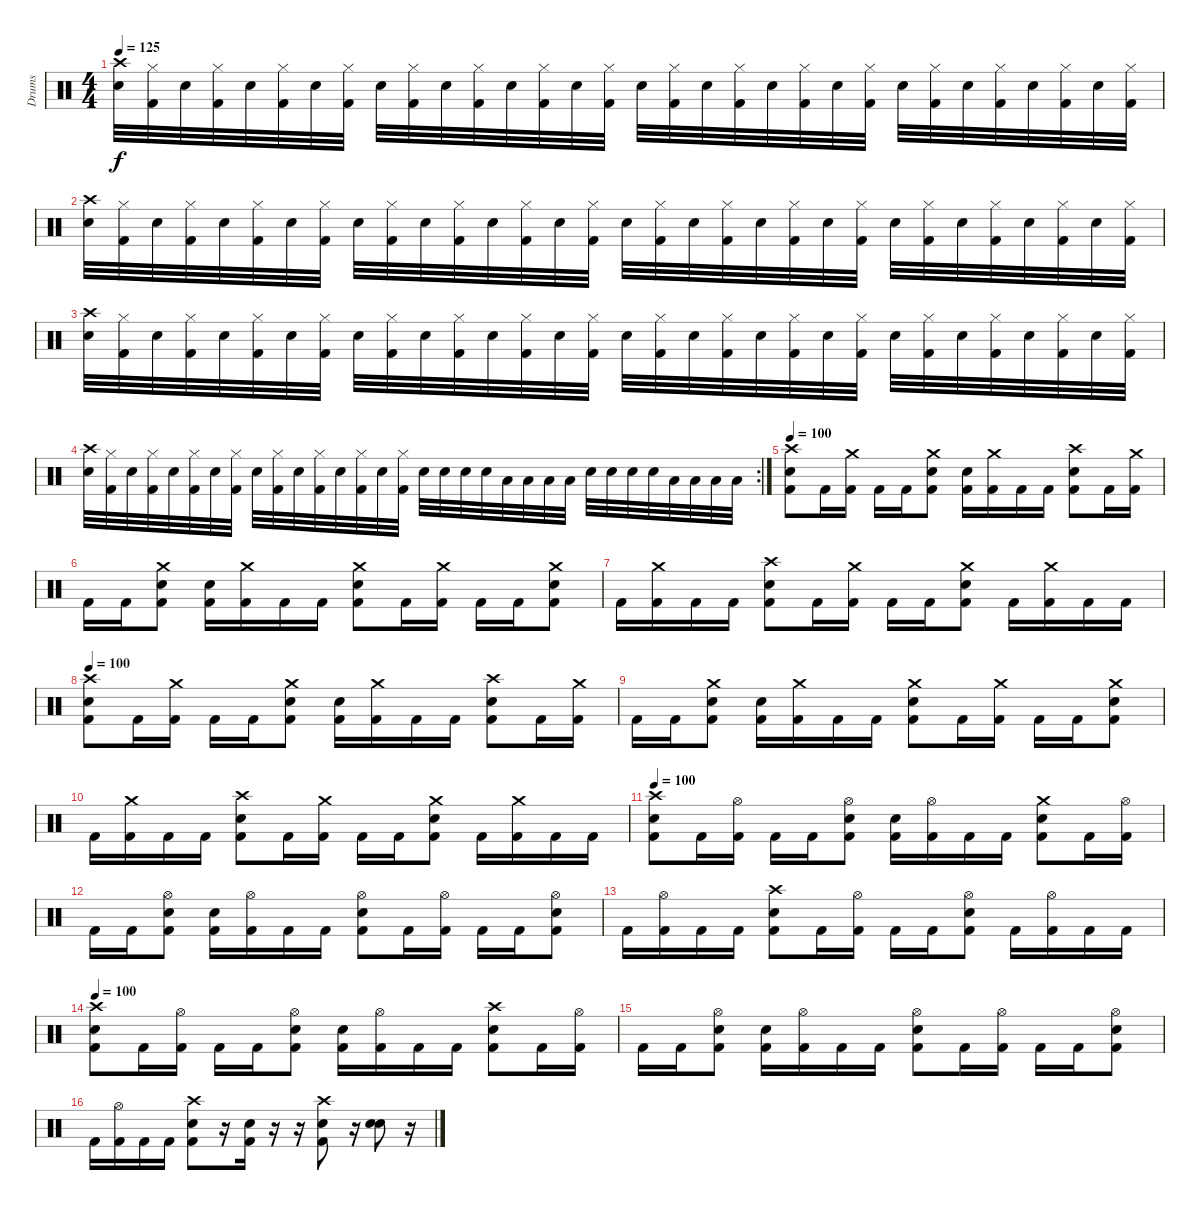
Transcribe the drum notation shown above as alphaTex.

\track ("Drums" "Drums") {instrument percussion}
\staff {score}
\articulation defaults
\ts (4 4)
\tempo 125
\clef neutral
\ks c
("Crash high (hit)" "Snare (hit) 2").32{dy f} ("Hi-Hat (closed)" "Kick (hit) 2").32 "Snare (hit) 2".32 ("Hi-Hat (closed)" "Kick (hit) 2").32 "Snare (hit) 2".32 ("Hi-Hat (closed)" "Kick (hit) 2").32 "Snare (hit) 2".32 ("Hi-Hat (closed)" "Kick (hit) 2").32 "Snare (hit) 2".32 ("Hi-Hat (closed)" "Kick (hit) 2").32 "Snare (hit) 2".32 ("Hi-Hat (closed)" "Kick (hit) 2").32 "Snare (hit) 2".32 ("Hi-Hat (closed)" "Kick (hit) 2").32 "Snare (hit) 2".32 ("Hi-Hat (closed)" "Kick (hit) 2").32 "Snare (hit) 2".32 ("Hi-Hat (closed)" "Kick (hit) 2").32 "Snare (hit) 2".32 ("Hi-Hat (closed)" "Kick (hit) 2").32 "Snare (hit) 2".32 ("Hi-Hat (closed)" "Kick (hit) 2").32 "Snare (hit) 2".32 ("Hi-Hat (closed)" "Kick (hit) 2").32 "Snare (hit) 2".32 ("Hi-Hat (closed)" "Kick (hit) 2").32 "Snare (hit) 2".32 ("Hi-Hat (closed)" "Kick (hit) 2").32 "Snare (hit) 2".32 ("Hi-Hat (closed)" "Kick (hit) 2").32 "Snare (hit) 2".32 ("Hi-Hat (closed)" "Kick (hit) 2").32 |
("Crash high (hit)" "Snare (hit) 2").32 ("Hi-Hat (closed)" "Kick (hit) 2").32 "Snare (hit) 2".32 ("Hi-Hat (closed)" "Kick (hit) 2").32 "Snare (hit) 2".32 ("Hi-Hat (closed)" "Kick (hit) 2").32 "Snare (hit) 2".32 ("Hi-Hat (closed)" "Kick (hit) 2").32 "Snare (hit) 2".32 ("Hi-Hat (closed)" "Kick (hit) 2").32 "Snare (hit) 2".32 ("Hi-Hat (closed)" "Kick (hit) 2").32 "Snare (hit) 2".32 ("Hi-Hat (closed)" "Kick (hit) 2").32 "Snare (hit) 2".32 ("Hi-Hat (closed)" "Kick (hit) 2").32 "Snare (hit) 2".32 ("Hi-Hat (closed)" "Kick (hit) 2").32 "Snare (hit) 2".32 ("Hi-Hat (closed)" "Kick (hit) 2").32 "Snare (hit) 2".32 ("Hi-Hat (closed)" "Kick (hit) 2").32 "Snare (hit) 2".32 ("Hi-Hat (closed)" "Kick (hit) 2").32 "Snare (hit) 2".32 ("Hi-Hat (closed)" "Kick (hit) 2").32 "Snare (hit) 2".32 ("Hi-Hat (closed)" "Kick (hit) 2").32 "Snare (hit) 2".32 ("Hi-Hat (closed)" "Kick (hit) 2").32 "Snare (hit) 2".32 ("Hi-Hat (closed)" "Kick (hit) 2").32 |
("Crash high (hit)" "Snare (hit) 2").32 ("Hi-Hat (closed)" "Kick (hit) 2").32 "Snare (hit) 2".32 ("Hi-Hat (closed)" "Kick (hit) 2").32 "Snare (hit) 2".32 ("Hi-Hat (closed)" "Kick (hit) 2").32 "Snare (hit) 2".32 ("Hi-Hat (closed)" "Kick (hit) 2").32 "Snare (hit) 2".32 ("Hi-Hat (closed)" "Kick (hit) 2").32 "Snare (hit) 2".32 ("Hi-Hat (closed)" "Kick (hit) 2").32 "Snare (hit) 2".32 ("Hi-Hat (closed)" "Kick (hit) 2").32 "Snare (hit) 2".32 ("Hi-Hat (closed)" "Kick (hit) 2").32 "Snare (hit) 2".32 ("Hi-Hat (closed)" "Kick (hit) 2").32 "Snare (hit) 2".32 ("Hi-Hat (closed)" "Kick (hit) 2").32 "Snare (hit) 2".32 ("Hi-Hat (closed)" "Kick (hit) 2").32 "Snare (hit) 2".32 ("Hi-Hat (closed)" "Kick (hit) 2").32 "Snare (hit) 2".32 ("Hi-Hat (closed)" "Kick (hit) 2").32 "Snare (hit) 2".32 ("Hi-Hat (closed)" "Kick (hit) 2").32 "Snare (hit) 2".32 ("Hi-Hat (closed)" "Kick (hit) 2").32 "Snare (hit) 2".32 ("Hi-Hat (closed)" "Kick (hit) 2").32 |
\rc 2
("Crash high (hit)" "Snare (hit) 2").32 ("Hi-Hat (closed)" "Kick (hit) 2").32 "Snare (hit) 2".32 ("Hi-Hat (closed)" "Kick (hit) 2").32 "Snare (hit) 2".32 ("Hi-Hat (closed)" "Kick (hit) 2").32 "Snare (hit) 2".32 ("Hi-Hat (closed)" "Kick (hit) 2").32 "Snare (hit) 2".32 ("Hi-Hat (closed)" "Kick (hit) 2").32 "Snare (hit) 2".32 ("Hi-Hat (closed)" "Kick (hit) 2").32 "Snare (hit) 2".32 ("Hi-Hat (closed)" "Kick (hit) 2").32 "Snare (hit) 2".32 ("Hi-Hat (closed)" "Kick (hit) 2").32 "Snare (hit) 2".32 "Snare (hit) 2".32 "Snare (hit) 2".32 "Snare (hit) 2".32 "Low Tom (hit)".32 "Low Tom (hit)".32 "Low Tom (hit)".32 "Low Tom (hit)".32 "Snare (hit) 2".32 "Snare (hit) 2".32 "Snare (hit) 2".32 "Snare (hit) 2".32 "Low Tom (hit)".32 "Low Tom (hit)".32 "Low Tom (hit)".32 "Low Tom (hit)".32 |
\tempo 100
("Crash high (hit)" "Snare (hit) 2" "Kick (hit) 2").8 "Kick (hit) 2".16 ("Crash medium (hit)" "Kick (hit) 2").16 "Kick (hit) 2".16 "Kick (hit) 2".16 ("Crash medium (hit)" "Snare (hit) 2" "Kick (hit) 2").8 ("Snare (hit) 2" "Kick (hit) 2").16 ("Crash medium (hit)" "Kick (hit) 2").16 "Kick (hit) 2".16 "Kick (hit) 2".16 ("Crash high (hit)" "Snare (hit) 2" "Kick (hit) 2").8 "Kick (hit) 2".16 ("Crash medium (hit)" "Kick (hit) 2").16 |
"Kick (hit) 2".16 "Kick (hit) 2".16 ("Crash medium (hit)" "Snare (hit) 2" "Kick (hit) 2").8 ("Snare (hit) 2" "Kick (hit) 2").16 ("Crash medium (hit)" "Kick (hit) 2").16 "Kick (hit) 2".16 "Kick (hit) 2".16 ("Crash medium (hit)" "Snare (hit) 2" "Kick (hit) 2").8 "Kick (hit) 2".16 ("Crash medium (hit)" "Kick (hit) 2").16 "Kick (hit) 2".16 "Kick (hit) 2".16 ("Crash medium (hit)" "Snare (hit) 2" "Kick (hit) 2").8 |
"Kick (hit) 2".16 ("Crash medium (hit)" "Kick (hit) 2").16 "Kick (hit) 2".16 "Kick (hit) 2".16 ("Crash high (hit)" "Snare (hit) 2" "Kick (hit) 2").8 "Kick (hit) 2".16 ("Crash medium (hit)" "Kick (hit) 2").16 "Kick (hit) 2".16 "Kick (hit) 2".16 ("Crash medium (hit)" "Snare (hit) 2" "Kick (hit) 2").8 "Kick (hit) 2".16 ("Crash medium (hit)" "Kick (hit) 2").16 "Kick (hit) 2".16 "Kick (hit) 2".16 |
\tempo 100
("Crash high (hit)" "Snare (hit) 2" "Kick (hit) 2").8 "Kick (hit) 2".16 ("Crash medium (hit)" "Kick (hit) 2").16 "Kick (hit) 2".16 "Kick (hit) 2".16 ("Crash medium (hit)" "Snare (hit) 2" "Kick (hit) 2").8 ("Snare (hit) 2" "Kick (hit) 2").16 ("Crash medium (hit)" "Kick (hit) 2").16 "Kick (hit) 2".16 "Kick (hit) 2".16 ("Crash high (hit)" "Snare (hit) 2" "Kick (hit) 2").8 "Kick (hit) 2".16 ("Crash medium (hit)" "Kick (hit) 2").16 |
"Kick (hit) 2".16 "Kick (hit) 2".16 ("Crash medium (hit)" "Snare (hit) 2" "Kick (hit) 2").8 ("Snare (hit) 2" "Kick (hit) 2").16 ("Crash medium (hit)" "Kick (hit) 2").16 "Kick (hit) 2".16 "Kick (hit) 2".16 ("Crash medium (hit)" "Snare (hit) 2" "Kick (hit) 2").8 "Kick (hit) 2".16 ("Crash medium (hit)" "Kick (hit) 2").16 "Kick (hit) 2".16 "Kick (hit) 2".16 ("Crash medium (hit)" "Snare (hit) 2" "Kick (hit) 2").8 |
"Kick (hit) 2".16 ("Crash medium (hit)" "Kick (hit) 2").16 "Kick (hit) 2".16 "Kick (hit) 2".16 ("Crash high (hit)" "Snare (hit) 2" "Kick (hit) 2").8 "Kick (hit) 2".16 ("Crash medium (hit)" "Kick (hit) 2").16 "Kick (hit) 2".16 "Kick (hit) 2".16 ("Crash medium (hit)" "Snare (hit) 2" "Kick (hit) 2").8 "Kick (hit) 2".16 ("Crash medium (hit)" "Kick (hit) 2").16 "Kick (hit) 2".16 "Kick (hit) 2".16 |
\tempo 100
("Crash high (hit)" "Snare (hit) 2" "Kick (hit) 2").8 "Kick (hit) 2".16 ("Hi-Hat (open)" "Kick (hit) 2").16 "Kick (hit) 2".16 "Kick (hit) 2".16 ("Hi-Hat (open)" "Snare (hit) 2" "Kick (hit) 2").8 ("Snare (hit) 2" "Kick (hit) 2").16 ("Hi-Hat (open)" "Kick (hit) 2").16 "Kick (hit) 2".16 "Kick (hit) 2".16 ("Crash medium (hit)" "Snare (hit) 2" "Kick (hit) 2").8 "Kick (hit) 2".16 ("Hi-Hat (open)" "Kick (hit) 2").16 |
"Kick (hit) 2".16 "Kick (hit) 2".16 ("Hi-Hat (open)" "Snare (hit) 2" "Kick (hit) 2").8 ("Snare (hit) 2" "Kick (hit) 2").16 ("Hi-Hat (open)" "Kick (hit) 2").16 "Kick (hit) 2".16 "Kick (hit) 2".16 ("Hi-Hat (open)" "Snare (hit) 2" "Kick (hit) 2").8 "Kick (hit) 2".16 ("Hi-Hat (open)" "Kick (hit) 2").16 "Kick (hit) 2".16 "Kick (hit) 2".16 ("Hi-Hat (open)" "Snare (hit) 2" "Kick (hit) 2").8 |
"Kick (hit) 2".16 ("Hi-Hat (open)" "Kick (hit) 2").16 "Kick (hit) 2".16 "Kick (hit) 2".16 ("Crash high (hit)" "Snare (hit) 2" "Kick (hit) 2").8 "Kick (hit) 2".16 ("Hi-Hat (open)" "Kick (hit) 2").16 "Kick (hit) 2".16 "Kick (hit) 2".16 ("Hi-Hat (open)" "Snare (hit) 2" "Kick (hit) 2").8 "Kick (hit) 2".16 ("Hi-Hat (open)" "Kick (hit) 2").16 "Kick (hit) 2".16 "Kick (hit) 2".16 |
\tempo 100
("Crash high (hit)" "Snare (hit) 2" "Kick (hit) 2").8 "Kick (hit) 2".16 ("Hi-Hat (open)" "Kick (hit) 2").16 "Kick (hit) 2".16 "Kick (hit) 2".16 ("Hi-Hat (open)" "Snare (hit) 2" "Kick (hit) 2").8 ("Snare (hit) 2" "Kick (hit) 2").16 ("Hi-Hat (open)" "Kick (hit) 2").16 "Kick (hit) 2".16 "Kick (hit) 2".16 ("Crash high (hit)" "Snare (hit) 2" "Kick (hit) 2").8 "Kick (hit) 2".16 ("Hi-Hat (open)" "Kick (hit) 2").16 |
"Kick (hit) 2".16 "Kick (hit) 2".16 ("Hi-Hat (open)" "Snare (hit) 2" "Kick (hit) 2").8 ("Snare (hit) 2" "Kick (hit) 2").16 ("Hi-Hat (open)" "Kick (hit) 2").16 "Kick (hit) 2".16 "Kick (hit) 2".16 ("Hi-Hat (open)" "Snare (hit) 2" "Kick (hit) 2").8 "Kick (hit) 2".16 ("Hi-Hat (open)" "Kick (hit) 2").16 "Kick (hit) 2".16 "Kick (hit) 2".16 ("Hi-Hat (open)" "Snare (hit) 2" "Kick (hit) 2").8 |
"Kick (hit) 2".16 ("Hi-Hat (open)" "Kick (hit) 2").16 "Kick (hit) 2".16 "Kick (hit) 2".16 ("Crash high (hit)" "Snare (hit) 2" "Kick (hit) 2").8 r.16 ("Snare (hit) 2" "Kick (hit) 2").16 r.16 r.16 ("Crash high (hit)" "Snare (hit) 2" "Kick (hit) 2").8 r.16 ("Snare (hit) 2" "Snare (hit) 2").8 r.16
